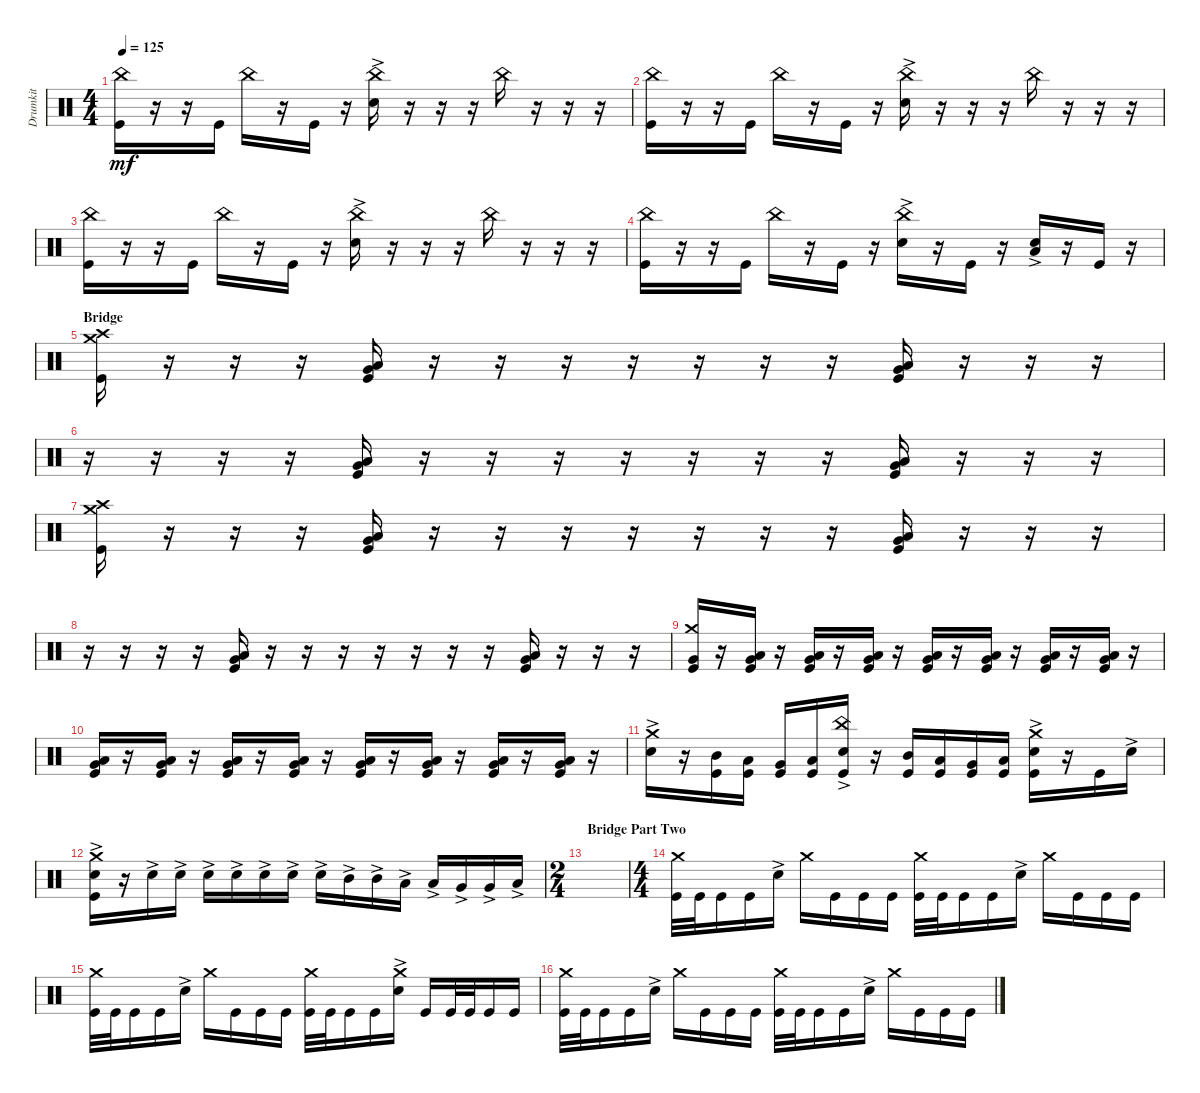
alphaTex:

\track ("Drumkit" "Drumkit") {instrument percussion}
\staff {score}
\articulation defaults
\ts (4 4)
\tempo 125
\clef neutral
\ks c
("Kick (hit)" "China (hit)").16{dy mf} r.16 r.16 "Kick (hit)".16 "China (hit)".16 r.16 "Kick (hit)".16 r.16 ("Snare (hit) 2"{ac} "China (hit)").16 r.16 r.16 r.16 "China (hit)".16 r.16 r.16 r.16 |
("Kick (hit)" "China (hit)").16 r.16 r.16 "Kick (hit)".16 "China (hit)".16 r.16 "Kick (hit)".16 r.16 ("Snare (hit) 2"{ac} "China (hit)").16 r.16 r.16 r.16 "China (hit)".16 r.16 r.16 r.16 |
("Kick (hit)" "China (hit)").16 r.16 r.16 "Kick (hit)".16 "China (hit)".16 r.16 "Kick (hit)".16 r.16 ("Snare (hit) 2"{ac} "China (hit)").16 r.16 r.16 r.16 "China (hit)".16 r.16 r.16 r.16 |
("Kick (hit)" "China (hit)").16 r.16 r.16 "Kick (hit)".16 "China (hit)".16 r.16 "Kick (hit)".16 r.16 ("Snare (hit) 2"{ac} "China (hit)").16 r.16 "Kick (hit)".16 r.16 ("Snare (hit) 2"{ac} "Low Floor Tom (hit)").16 r.16 "Kick (hit)".16 r.16 |
\section ("" "Bridge")
("Kick (hit)" "Crash medium (hit)" "Crash high (hit)").16 r.16 r.16 r.16 ("Kick (hit)" "Very Low Tom (hit)" "Low Floor Tom (hit)").16 r.16 r.16 r.16 r.16 r.16 r.16 r.16 ("Kick (hit)" "Low Floor Tom (hit)" "Very Low Tom (hit)").16 r.16 r.16 r.16 |
r.16 r.16 r.16 r.16 ("Kick (hit)" "Very Low Tom (hit)" "Low Floor Tom (hit)").16 r.16 r.16 r.16 r.16 r.16 r.16 r.16 ("Kick (hit)" "Low Floor Tom (hit)" "Very Low Tom (hit)").16 r.16 r.16 r.16 |
("Kick (hit)" "Crash medium (hit)" "Crash high (hit)").16 r.16 r.16 r.16 ("Kick (hit)" "Very Low Tom (hit)" "Low Floor Tom (hit)").16 r.16 r.16 r.16 r.16 r.16 r.16 r.16 ("Kick (hit)" "Low Floor Tom (hit)" "Very Low Tom (hit)").16 r.16 r.16 r.16 |
r.16 r.16 r.16 r.16 ("Kick (hit)" "Very Low Tom (hit)" "Low Floor Tom (hit)").16 r.16 r.16 r.16 r.16 r.16 r.16 r.16 ("Kick (hit)" "Low Floor Tom (hit)" "Very Low Tom (hit)").16 r.16 r.16 r.16 |
("Kick (hit)" "Very Low Tom (hit)" "Crash medium (hit)").16 r.16 ("Kick (hit)" "Very Low Tom (hit)" "Low Floor Tom (hit)").16 r.16 ("Kick (hit)" "Very Low Tom (hit)" "Low Floor Tom (hit)").16 r.16 ("Kick (hit)" "Very Low Tom (hit)" "Low Floor Tom (hit)").16 r.16 ("Kick (hit)" "Very Low Tom (hit)" "Low Floor Tom (hit)").16 r.16 ("Kick (hit)" "Very Low Tom (hit)" "Low Floor Tom (hit)").16 r.16 ("Kick (hit)" "Very Low Tom (hit)" "Low Floor Tom (hit)").16 r.16 ("Kick (hit)" "Very Low Tom (hit)" "Low Floor Tom (hit)").16 r.16 |
("Kick (hit)" "Very Low Tom (hit)" "Low Floor Tom (hit)").16 r.16 ("Kick (hit)" "Very Low Tom (hit)" "Low Floor Tom (hit)").16 r.16 ("Kick (hit)" "Very Low Tom (hit)" "Low Floor Tom (hit)").16 r.16 ("Kick (hit)" "Very Low Tom (hit)" "Low Floor Tom (hit)").16 r.16 ("Kick (hit)" "Very Low Tom (hit)" "Low Floor Tom (hit)").16 r.16 ("Kick (hit)" "Very Low Tom (hit)" "Low Floor Tom (hit)").16 r.16 ("Kick (hit)" "Very Low Tom (hit)" "Low Floor Tom (hit)").16 r.16 ("Kick (hit)" "Very Low Tom (hit)" "Low Floor Tom (hit)").16 r.16 |
("Snare (hit) 2"{ac} "Crash medium (hit)").16 r.16 ("Mid Tom (hit)" "Kick (hit)").16 ("Low Tom (hit)" "Kick (hit)").16 ("Very Low Tom (hit)" "Kick (hit)").16 ("Low Floor Tom (hit)" "Kick (hit)").16 ("Snare (hit) 2"{ac} "Kick (hit)" "China (hit)").16 r.16 ("Mid Tom (hit)" "Kick (hit)").16 ("Low Tom (hit)" "Kick (hit)").16 ("Very Low Tom (hit)" "Kick (hit)").16 ("Low Floor Tom (hit)" "Kick (hit)").16 ("Snare (hit) 2"{ac} "Crash medium (hit)" "Kick (hit)").16 r.16 "Kick (hit)".16 "Snare (hit) 2"{ac}.16 |
("Snare (hit) 2"{ac} "Crash medium (hit)"{ac} "Kick (hit)").16 r.16 "Snare (hit) 2"{ac}.16 "Snare (hit) 2"{ac}.16 "Snare (hit) 2"{ac}.16 "Snare (hit) 2"{ac}.16 "Snare (hit) 2"{ac}.16 "Snare (hit) 2"{ac}.16 "Snare (hit) 2"{ac}.16 "Mid Tom (hit)"{ac}.16 "Mid Tom (hit)"{ac}.16 "Low Tom (hit)"{ac}.16 "Low Tom (hit)"{ac}.16 "Very Low Tom (hit)"{ac}.16 "Very Low Tom (hit)"{ac}.16 "Low Floor Tom (hit)"{ac}.16 |
\ts (2 4)
\section ("" "Bridge Part Two")
|
\ts (4 4)
("Kick (hit)" "Crash medium (hit)").32 "Kick (hit)".32 "Kick (hit)".16 "Kick (hit)".16 "Snare (hit) 2"{ac}.16 "Crash medium (hit)".16 "Kick (hit)".16 "Kick (hit)".16 "Kick (hit)".16 ("Kick (hit)" "Crash medium (hit)").32 "Kick (hit)".32 "Kick (hit)".16 "Kick (hit)".16 "Snare (hit) 2"{ac}.16 "Crash medium (hit)".16 "Kick (hit)".16 "Kick (hit)".16 "Kick (hit)".16 |
("Kick (hit)" "Crash medium (hit)").32 "Kick (hit)".32 "Kick (hit)".16 "Kick (hit)".16 "Snare (hit) 2"{ac}.16 "Crash medium (hit)".16 "Kick (hit)".16 "Kick (hit)".16 "Kick (hit)".16 ("Kick (hit)" "Crash medium (hit)").32 "Kick (hit)".32 "Kick (hit)".16 "Kick (hit)".16 ("Crash medium (hit)" "Snare (hit) 2"{ac}).16 "Kick (hit)".16 "Kick (hit)".32 "Kick (hit)".32 "Kick (hit)".16 "Kick (hit)".16 |
("Kick (hit)" "Crash medium (hit)").32 "Kick (hit)".32 "Kick (hit)".16 "Kick (hit)".16 "Snare (hit) 2"{ac}.16 "Crash medium (hit)".16 "Kick (hit)".16 "Kick (hit)".16 "Kick (hit)".16 ("Kick (hit)" "Crash medium (hit)").32 "Kick (hit)".32 "Kick (hit)".16 "Kick (hit)".16 "Snare (hit) 2"{ac}.16 "Crash medium (hit)".16 "Kick (hit)".16 "Kick (hit)".16 "Kick (hit)".16
